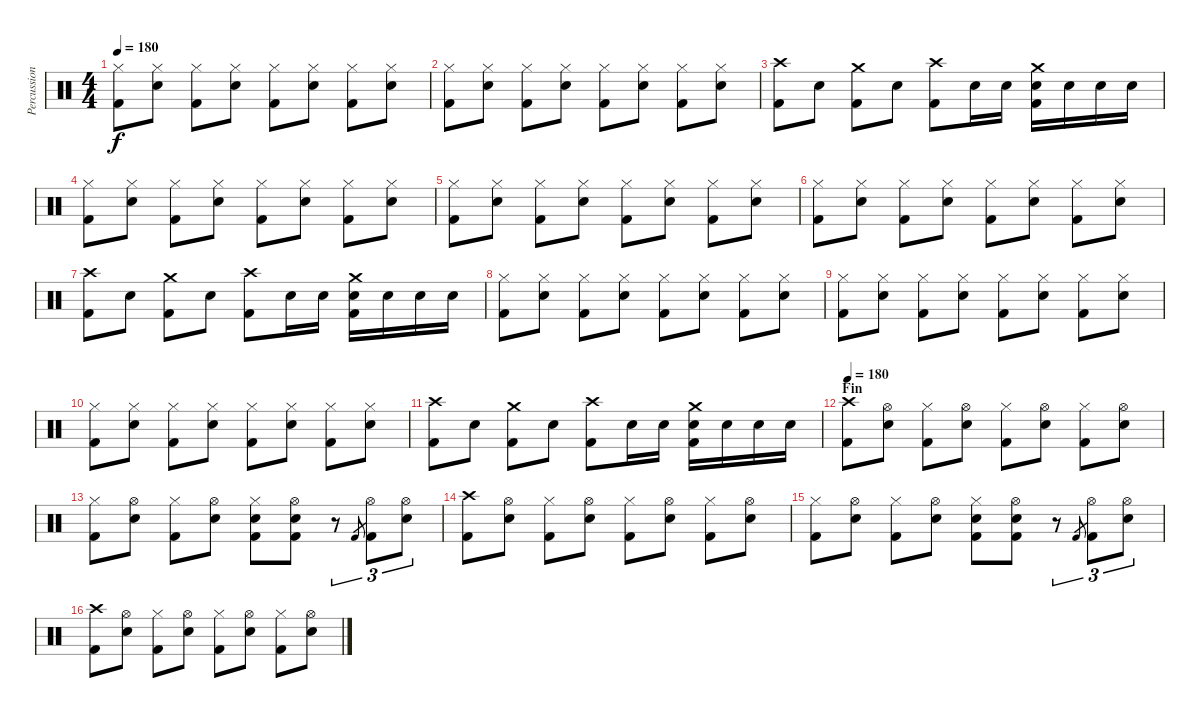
\track ("Percussions" "Percussion") {instrument percussion}
\staff {score}
\articulation defaults
\ts (4 4)
\tempo 180
\clef neutral
\ks c
("Hi-Hat (closed)" "Kick (hit) 2").8{dy f} ("Hi-Hat (closed)" "Snare (hit) 2").8 ("Hi-Hat (closed)" "Kick (hit) 2").8 ("Hi-Hat (closed)" "Snare (hit) 2").8 ("Hi-Hat (closed)" "Kick (hit) 2").8 ("Hi-Hat (closed)" "Snare (hit) 2").8 ("Hi-Hat (closed)" "Kick (hit) 2").8 ("Hi-Hat (closed)" "Snare (hit) 2").8 |
("Hi-Hat (closed)" "Kick (hit) 2").8 ("Hi-Hat (closed)" "Snare (hit) 2").8 ("Hi-Hat (closed)" "Kick (hit) 2").8 ("Hi-Hat (closed)" "Snare (hit) 2").8 ("Hi-Hat (closed)" "Kick (hit) 2").8 ("Hi-Hat (closed)" "Snare (hit) 2").8 ("Hi-Hat (closed)" "Kick (hit) 2").8 ("Hi-Hat (closed)" "Snare (hit) 2").8 |
("Crash high (hit)" "Kick (hit) 2").8 "Snare (hit) 2".8 ("Crash medium (hit)" "Kick (hit) 2").8 "Snare (hit) 2".8 ("Crash high (hit)" "Kick (hit) 2").8 "Snare (hit) 2".16 "Snare (hit) 2".16 ("Crash medium (hit)" "Snare (hit) 2" "Kick (hit) 2").16 "Snare (hit) 2".16 "Snare (hit) 2".16 "Snare (hit) 2".16 |
("Hi-Hat (closed)" "Kick (hit) 2").8 ("Hi-Hat (closed)" "Snare (hit) 2").8 ("Hi-Hat (closed)" "Kick (hit) 2").8 ("Hi-Hat (closed)" "Snare (hit) 2").8 ("Hi-Hat (closed)" "Kick (hit) 2").8 ("Hi-Hat (closed)" "Snare (hit) 2").8 ("Hi-Hat (closed)" "Kick (hit) 2").8 ("Hi-Hat (closed)" "Snare (hit) 2").8 |
("Hi-Hat (closed)" "Kick (hit) 2").8 ("Hi-Hat (closed)" "Snare (hit) 2").8 ("Hi-Hat (closed)" "Kick (hit) 2").8 ("Hi-Hat (closed)" "Snare (hit) 2").8 ("Hi-Hat (closed)" "Kick (hit) 2").8 ("Hi-Hat (closed)" "Snare (hit) 2").8 ("Hi-Hat (closed)" "Kick (hit) 2").8 ("Hi-Hat (closed)" "Snare (hit) 2").8 |
("Hi-Hat (closed)" "Kick (hit) 2").8 ("Hi-Hat (closed)" "Snare (hit) 2").8 ("Hi-Hat (closed)" "Kick (hit) 2").8 ("Hi-Hat (closed)" "Snare (hit) 2").8 ("Hi-Hat (closed)" "Kick (hit) 2").8 ("Hi-Hat (closed)" "Snare (hit) 2").8 ("Hi-Hat (closed)" "Kick (hit) 2").8 ("Hi-Hat (closed)" "Snare (hit) 2").8 |
("Crash high (hit)" "Kick (hit) 2").8 "Snare (hit) 2".8 ("Crash medium (hit)" "Kick (hit) 2").8 "Snare (hit) 2".8 ("Crash high (hit)" "Kick (hit) 2").8 "Snare (hit) 2".16 "Snare (hit) 2".16 ("Crash medium (hit)" "Snare (hit) 2" "Kick (hit) 2").16 "Snare (hit) 2".16 "Snare (hit) 2".16 "Snare (hit) 2".16 |
("Hi-Hat (closed)" "Kick (hit) 2").8 ("Hi-Hat (closed)" "Snare (hit) 2").8 ("Hi-Hat (closed)" "Kick (hit) 2").8 ("Hi-Hat (closed)" "Snare (hit) 2").8 ("Hi-Hat (closed)" "Kick (hit) 2").8 ("Hi-Hat (closed)" "Snare (hit) 2").8 ("Hi-Hat (closed)" "Kick (hit) 2").8 ("Hi-Hat (closed)" "Snare (hit) 2").8 |
("Hi-Hat (closed)" "Kick (hit) 2").8 ("Hi-Hat (closed)" "Snare (hit) 2").8 ("Hi-Hat (closed)" "Kick (hit) 2").8 ("Hi-Hat (closed)" "Snare (hit) 2").8 ("Hi-Hat (closed)" "Kick (hit) 2").8 ("Hi-Hat (closed)" "Snare (hit) 2").8 ("Hi-Hat (closed)" "Kick (hit) 2").8 ("Hi-Hat (closed)" "Snare (hit) 2").8 |
("Hi-Hat (closed)" "Kick (hit) 2").8 ("Hi-Hat (closed)" "Snare (hit) 2").8 ("Hi-Hat (closed)" "Kick (hit) 2").8 ("Hi-Hat (closed)" "Snare (hit) 2").8 ("Hi-Hat (closed)" "Kick (hit) 2").8 ("Hi-Hat (closed)" "Snare (hit) 2").8 ("Hi-Hat (closed)" "Kick (hit) 2").8 ("Hi-Hat (closed)" "Snare (hit) 2").8 |
("Crash high (hit)" "Kick (hit) 2").8 "Snare (hit) 2".8 ("Crash medium (hit)" "Kick (hit) 2").8 "Snare (hit) 2".8 ("Crash high (hit)" "Kick (hit) 2").8 "Snare (hit) 2".16 "Snare (hit) 2".16 ("Crash medium (hit)" "Snare (hit) 2" "Kick (hit) 2").16 "Snare (hit) 2".16 "Snare (hit) 2".16 "Snare (hit) 2".16 |
\section ("" "Fin")
\tempo 180
("Crash high (hit)" "Kick (hit) 2").8 ("Hi-Hat (open)" "Snare (hit) 2").8 ("Hi-Hat (closed)" "Kick (hit) 2").8 ("Hi-Hat (open)" "Snare (hit) 2").8 ("Hi-Hat (closed)" "Kick (hit) 2").8 ("Hi-Hat (open)" "Snare (hit) 2").8 ("Hi-Hat (closed)" "Kick (hit) 2").8 ("Hi-Hat (open)" "Snare (hit) 2").8 |
("Hi-Hat (closed)" "Kick (hit) 2").8 ("Hi-Hat (open)" "Snare (hit) 2").8 ("Hi-Hat (closed)" "Kick (hit) 2").8 ("Hi-Hat (open)" "Snare (hit) 2").8 ("Hi-Hat (closed)" "Snare (hit) 2" "Kick (hit) 2").8 ("Hi-Hat (open)" "Snare (hit) 2" "Kick (hit) 2").8 r.8{tu (3 2)} "Kick (hit) 2".8{gr} ("Hi-Hat (open)" "Kick (hit) 2").8{tu (3 2)} ("Hi-Hat (open)" "Snare (hit) 2").8{tu (3 2)} |
("Crash high (hit)" "Kick (hit) 2").8 ("Hi-Hat (open)" "Snare (hit) 2").8 ("Hi-Hat (closed)" "Kick (hit) 2").8 ("Hi-Hat (open)" "Snare (hit) 2").8 ("Hi-Hat (closed)" "Kick (hit) 2").8 ("Hi-Hat (open)" "Snare (hit) 2").8 ("Hi-Hat (closed)" "Kick (hit) 2").8 ("Hi-Hat (open)" "Snare (hit) 2").8 |
("Hi-Hat (closed)" "Kick (hit) 2").8 ("Hi-Hat (open)" "Snare (hit) 2").8 ("Hi-Hat (closed)" "Kick (hit) 2").8 ("Hi-Hat (open)" "Snare (hit) 2").8 ("Hi-Hat (closed)" "Snare (hit) 2" "Kick (hit) 2").8 ("Hi-Hat (open)" "Snare (hit) 2" "Kick (hit) 2").8 r.8{tu (3 2)} "Kick (hit) 2".8{gr} ("Hi-Hat (open)" "Kick (hit) 2").8{tu (3 2)} ("Hi-Hat (open)" "Snare (hit) 2").8{tu (3 2)} |
("Crash high (hit)" "Kick (hit) 2").8 ("Hi-Hat (open)" "Snare (hit) 2").8 ("Hi-Hat (closed)" "Kick (hit) 2").8 ("Hi-Hat (open)" "Snare (hit) 2").8 ("Hi-Hat (closed)" "Kick (hit) 2").8 ("Hi-Hat (open)" "Snare (hit) 2").8 ("Hi-Hat (closed)" "Kick (hit) 2").8 ("Hi-Hat (open)" "Snare (hit) 2").8
